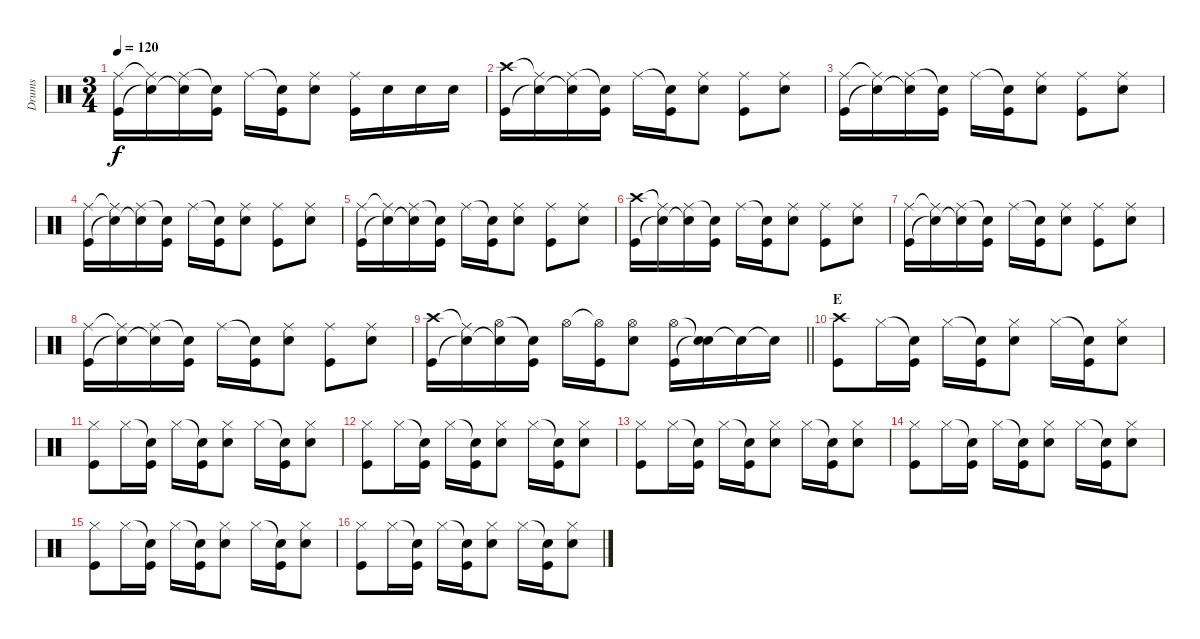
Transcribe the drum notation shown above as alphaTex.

\track ("Drums" "Drums") {instrument percussion}
\staff {score}
\articulation defaults
\ts (3 4)
\tempo 120
\clef neutral
\ks c
("Ride (middle)" "Kick (hit)").16{dy f} ("Ride (middle)"{t} "Snare (hit)"{t}).16 ("Ride (middle)" "Snare (hit)"{t}).16 ("Snare (hit)"{t} "Kick (hit)").16 "Ride (middle)".16 ("Snare (hit)"{t} "Kick (hit)").16 ("Ride (middle)" "Snare (hit) 2").8 ("Ride (middle)" "Kick (hit)").16 "Snare (hit) 2".16 "Snare (hit) 2".16 "Snare (hit) 2".16 |
("Crash high (hit)" "Kick (hit)").16 ("Ride (middle)"{t} "Snare (hit)"{t}).16 ("Ride (middle)" "Snare (hit)"{t}).16 ("Snare (hit)"{t} "Kick (hit)").16 "Ride (middle)".16 ("Snare (hit)"{t} "Kick (hit)").16 ("Ride (middle)" "Snare (hit) 2").8 ("Ride (middle)" "Kick (hit)").8 ("Ride (middle)" "Snare (hit) 2").8 |
("Ride (middle)" "Kick (hit)").16 ("Ride (middle)"{t} "Snare (hit)"{t}).16 ("Ride (middle)" "Snare (hit)"{t}).16 ("Snare (hit)"{t} "Kick (hit)").16 "Ride (middle)".16 ("Snare (hit)"{t} "Kick (hit)").16 ("Ride (middle)" "Snare (hit) 2").8 ("Ride (middle)" "Kick (hit)").8 ("Ride (middle)" "Snare (hit) 2").8 |
("Ride (middle)" "Kick (hit)").16 ("Ride (middle)"{t} "Snare (hit)"{t}).16 ("Ride (middle)" "Snare (hit)"{t}).16 ("Snare (hit)"{t} "Kick (hit)").16 "Ride (middle)".16 ("Snare (hit)"{t} "Kick (hit)").16 ("Ride (middle)" "Snare (hit) 2").8 ("Ride (middle)" "Kick (hit)").8 ("Ride (middle)" "Snare (hit) 2").8 |
("Ride (middle)" "Kick (hit)").16 ("Ride (middle)"{t} "Snare (hit)"{t}).16 ("Ride (middle)" "Snare (hit)"{t}).16 ("Snare (hit)"{t} "Kick (hit)").16 "Ride (middle)".16 ("Snare (hit)"{t} "Kick (hit)").16 ("Ride (middle)" "Snare (hit) 2").8 ("Ride (middle)" "Kick (hit)").8 ("Ride (middle)" "Snare (hit) 2").8 |
("Crash high (hit)" "Kick (hit)").16 ("Ride (middle)"{t} "Snare (hit)"{t}).16 ("Ride (middle)" "Snare (hit)"{t}).16 ("Snare (hit)"{t} "Kick (hit)").16 "Ride (middle)".16 ("Snare (hit)"{t} "Kick (hit)").16 ("Ride (middle)" "Snare (hit) 2").8 ("Ride (middle)" "Kick (hit)").8 ("Ride (middle)" "Snare (hit) 2").8 |
("Ride (middle)" "Kick (hit)").16 ("Ride (middle)"{t} "Snare (hit)"{t}).16 ("Ride (middle)" "Snare (hit)"{t}).16 ("Snare (hit)"{t} "Kick (hit)").16 "Ride (middle)".16 ("Snare (hit)"{t} "Kick (hit)").16 ("Ride (middle)" "Snare (hit) 2").8 ("Ride (middle)" "Kick (hit)").8 ("Ride (middle)" "Snare (hit) 2").8 |
("Ride (middle)" "Kick (hit)").16 ("Ride (middle)"{t} "Snare (hit)"{t}).16 ("Ride (middle)" "Snare (hit)"{t}).16 ("Snare (hit)"{t} "Kick (hit)").16 "Ride (middle)".16 ("Snare (hit)"{t} "Kick (hit)").16 ("Ride (middle)" "Snare (hit) 2").8 ("Ride (middle)" "Kick (hit)").8 ("Ride (middle)" "Snare (hit) 2").8 |
\barLineRight lightlight
("Crash high (hit)" "Kick (hit)").16 ("Ride (middle)"{t} "Snare (hit)"{t}).16 ("Hi-Hat (open)" "Snare (hit)"{t}).16 ("Snare (hit)"{t} "Kick (hit)").16 "Hi-Hat (open)".16 ("Hi-Hat (open)"{t} "Kick (hit)").16 ("Hi-Hat (open)" "Snare (hit) 2").8 ("Hi-Hat (open)" "Kick (hit)").16 ("Snare (hit)"{t} "Snare (hit)"{t}).16 "Snare (hit)"{t}.16 "Snare (hit)"{t}.16 |
\section ("" "E")
("Crash high (hit)" "Kick (hit)").8 "Hi-Hat (closed)".16 ("Snare (hit)"{t} "Kick (hit)").16 "Hi-Hat (closed)".16 ("Snare (hit)"{t} "Kick (hit)").16 ("Hi-Hat (closed)" "Snare (hit) 2").8 "Hi-Hat (closed)".16 ("Snare (hit)"{t} "Kick (hit)").16 ("Hi-Hat (closed)" "Snare (hit) 2").8 |
("Hi-Hat (closed)" "Kick (hit)").8 "Hi-Hat (closed)".16 ("Snare (hit)"{t} "Kick (hit)").16 "Hi-Hat (closed)".16 ("Snare (hit)"{t} "Kick (hit)").16 ("Hi-Hat (closed)" "Snare (hit) 2").8 "Hi-Hat (closed)".16 ("Snare (hit)"{t} "Kick (hit)").16 ("Hi-Hat (closed)" "Snare (hit) 2").8 |
("Hi-Hat (closed)" "Kick (hit)").8 "Hi-Hat (closed)".16 ("Snare (hit)"{t} "Kick (hit)").16 "Hi-Hat (closed)".16 ("Snare (hit)"{t} "Kick (hit)").16 ("Hi-Hat (closed)" "Snare (hit) 2").8 "Hi-Hat (closed)".16 ("Snare (hit)"{t} "Kick (hit)").16 ("Hi-Hat (closed)" "Snare (hit) 2").8 |
("Hi-Hat (closed)" "Kick (hit)").8 "Hi-Hat (closed)".16 ("Snare (hit)"{t} "Kick (hit)").16 "Hi-Hat (closed)".16 ("Snare (hit)"{t} "Kick (hit)").16 ("Hi-Hat (closed)" "Snare (hit) 2").8 "Hi-Hat (closed)".16 ("Snare (hit)"{t} "Kick (hit)").16 ("Hi-Hat (closed)" "Snare (hit) 2").8 |
("Hi-Hat (closed)" "Kick (hit)").8 "Hi-Hat (closed)".16 ("Snare (hit)"{t} "Kick (hit)").16 "Hi-Hat (closed)".16 ("Snare (hit)"{t} "Kick (hit)").16 ("Hi-Hat (closed)" "Snare (hit) 2").8 "Hi-Hat (closed)".16 ("Snare (hit)"{t} "Kick (hit)").16 ("Hi-Hat (closed)" "Snare (hit) 2").8 |
("Hi-Hat (closed)" "Kick (hit)").8 "Hi-Hat (closed)".16 ("Snare (hit)"{t} "Kick (hit)").16 "Hi-Hat (closed)".16 ("Snare (hit)"{t} "Kick (hit)").16 ("Hi-Hat (closed)" "Snare (hit) 2").8 "Hi-Hat (closed)".16 ("Snare (hit)"{t} "Kick (hit)").16 ("Hi-Hat (closed)" "Snare (hit) 2").8 |
("Hi-Hat (closed)" "Kick (hit)").8 "Hi-Hat (closed)".16 ("Snare (hit)"{t} "Kick (hit)").16 "Hi-Hat (closed)".16 ("Snare (hit)"{t} "Kick (hit)").16 ("Hi-Hat (closed)" "Snare (hit) 2").8 "Hi-Hat (closed)".16 ("Snare (hit)"{t} "Kick (hit)").16 ("Hi-Hat (closed)" "Snare (hit) 2").8
